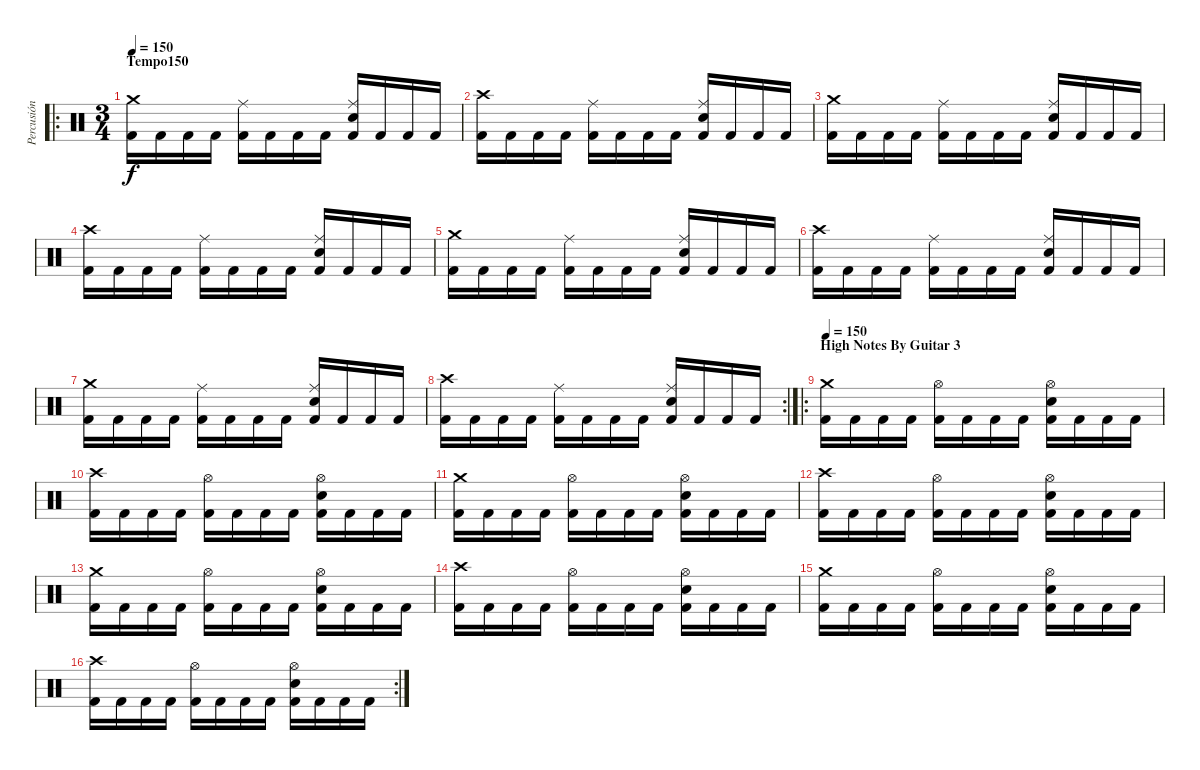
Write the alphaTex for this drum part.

\track ("Percusión" "Percusión") {instrument percussion}
\staff {score}
\articulation defaults
\ro
\ts (3 4)
\section ("" "Tempo150")
\tempo 150
\clef neutral
\ks c
("Crash medium (hit)" "Kick (hit) 2").16{dy f} "Kick (hit) 2".16 "Kick (hit) 2".16 "Kick (hit) 2".16 ("Ride (middle)" "Kick (hit) 2").16 "Kick (hit) 2".16 "Kick (hit) 2".16 "Kick (hit) 2".16 ("Ride (middle)" "Electric Snare (hit)" "Kick (hit) 2").16 "Kick (hit) 2".16 "Kick (hit) 2".16 "Kick (hit) 2".16 |
("Crash high (hit)" "Kick (hit) 2").16 "Kick (hit) 2".16 "Kick (hit) 2".16 "Kick (hit) 2".16 ("Ride (middle)" "Kick (hit) 2").16 "Kick (hit) 2".16 "Kick (hit) 2".16 "Kick (hit) 2".16 ("Ride (middle)" "Electric Snare (hit)" "Kick (hit) 2").16 "Kick (hit) 2".16 "Kick (hit) 2".16 "Kick (hit) 2".16 |
("Crash medium (hit)" "Kick (hit) 2").16 "Kick (hit) 2".16 "Kick (hit) 2".16 "Kick (hit) 2".16 ("Ride (middle)" "Kick (hit) 2").16 "Kick (hit) 2".16 "Kick (hit) 2".16 "Kick (hit) 2".16 ("Ride (middle)" "Electric Snare (hit)" "Kick (hit) 2").16 "Kick (hit) 2".16 "Kick (hit) 2".16 "Kick (hit) 2".16 |
("Crash high (hit)" "Kick (hit) 2").16 "Kick (hit) 2".16 "Kick (hit) 2".16 "Kick (hit) 2".16 ("Ride (middle)" "Kick (hit) 2").16 "Kick (hit) 2".16 "Kick (hit) 2".16 "Kick (hit) 2".16 ("Ride (middle)" "Electric Snare (hit)" "Kick (hit) 2").16 "Kick (hit) 2".16 "Kick (hit) 2".16 "Kick (hit) 2".16 |
("Crash medium (hit)" "Kick (hit) 2").16 "Kick (hit) 2".16 "Kick (hit) 2".16 "Kick (hit) 2".16 ("Ride (middle)" "Kick (hit) 2").16 "Kick (hit) 2".16 "Kick (hit) 2".16 "Kick (hit) 2".16 ("Ride (middle)" "Electric Snare (hit)" "Kick (hit) 2").16 "Kick (hit) 2".16 "Kick (hit) 2".16 "Kick (hit) 2".16 |
("Crash high (hit)" "Kick (hit) 2").16 "Kick (hit) 2".16 "Kick (hit) 2".16 "Kick (hit) 2".16 ("Ride (middle)" "Kick (hit) 2").16 "Kick (hit) 2".16 "Kick (hit) 2".16 "Kick (hit) 2".16 ("Ride (middle)" "Electric Snare (hit)" "Kick (hit) 2").16 "Kick (hit) 2".16 "Kick (hit) 2".16 "Kick (hit) 2".16 |
("Crash medium (hit)" "Kick (hit) 2").16 "Kick (hit) 2".16 "Kick (hit) 2".16 "Kick (hit) 2".16 ("Ride (middle)" "Kick (hit) 2").16 "Kick (hit) 2".16 "Kick (hit) 2".16 "Kick (hit) 2".16 ("Ride (middle)" "Electric Snare (hit)" "Kick (hit) 2").16 "Kick (hit) 2".16 "Kick (hit) 2".16 "Kick (hit) 2".16 |
\rc 2
("Crash high (hit)" "Kick (hit) 2").16 "Kick (hit) 2".16 "Kick (hit) 2".16 "Kick (hit) 2".16 ("Ride (middle)" "Kick (hit) 2").16 "Kick (hit) 2".16 "Kick (hit) 2".16 "Kick (hit) 2".16 ("Ride (middle)" "Electric Snare (hit)" "Kick (hit) 2").16 "Kick (hit) 2".16 "Kick (hit) 2".16 "Kick (hit) 2".16 |
\ro
\section ("" "High Notes By Guitar 3")
\tempo 150
("Crash medium (hit)" "Kick (hit) 2").16 "Kick (hit) 2".16 "Kick (hit) 2".16 "Kick (hit) 2".16 ("Hi-Hat (open)" "Kick (hit) 2").16 "Kick (hit) 2".16 "Kick (hit) 2".16 "Kick (hit) 2".16 ("Hi-Hat (open)" "Electric Snare (hit)" "Kick (hit) 2").16 "Kick (hit) 2".16 "Kick (hit) 2".16 "Kick (hit) 2".16 |
("Crash high (hit)" "Kick (hit) 2").16 "Kick (hit) 2".16 "Kick (hit) 2".16 "Kick (hit) 2".16 ("Hi-Hat (open)" "Kick (hit) 2").16 "Kick (hit) 2".16 "Kick (hit) 2".16 "Kick (hit) 2".16 ("Hi-Hat (open)" "Electric Snare (hit)" "Kick (hit) 2").16 "Kick (hit) 2".16 "Kick (hit) 2".16 "Kick (hit) 2".16 |
("Crash medium (hit)" "Kick (hit) 2").16 "Kick (hit) 2".16 "Kick (hit) 2".16 "Kick (hit) 2".16 ("Hi-Hat (open)" "Kick (hit) 2").16 "Kick (hit) 2".16 "Kick (hit) 2".16 "Kick (hit) 2".16 ("Hi-Hat (open)" "Electric Snare (hit)" "Kick (hit) 2").16 "Kick (hit) 2".16 "Kick (hit) 2".16 "Kick (hit) 2".16 |
("Crash high (hit)" "Kick (hit) 2").16 "Kick (hit) 2".16 "Kick (hit) 2".16 "Kick (hit) 2".16 ("Hi-Hat (open)" "Kick (hit) 2").16 "Kick (hit) 2".16 "Kick (hit) 2".16 "Kick (hit) 2".16 ("Hi-Hat (open)" "Electric Snare (hit)" "Kick (hit) 2").16 "Kick (hit) 2".16 "Kick (hit) 2".16 "Kick (hit) 2".16 |
("Crash medium (hit)" "Kick (hit) 2").16 "Kick (hit) 2".16 "Kick (hit) 2".16 "Kick (hit) 2".16 ("Hi-Hat (open)" "Kick (hit) 2").16 "Kick (hit) 2".16 "Kick (hit) 2".16 "Kick (hit) 2".16 ("Hi-Hat (open)" "Electric Snare (hit)" "Kick (hit) 2").16 "Kick (hit) 2".16 "Kick (hit) 2".16 "Kick (hit) 2".16 |
("Crash high (hit)" "Kick (hit) 2").16 "Kick (hit) 2".16 "Kick (hit) 2".16 "Kick (hit) 2".16 ("Hi-Hat (open)" "Kick (hit) 2").16 "Kick (hit) 2".16 "Kick (hit) 2".16 "Kick (hit) 2".16 ("Hi-Hat (open)" "Electric Snare (hit)" "Kick (hit) 2").16 "Kick (hit) 2".16 "Kick (hit) 2".16 "Kick (hit) 2".16 |
("Crash medium (hit)" "Kick (hit) 2").16 "Kick (hit) 2".16 "Kick (hit) 2".16 "Kick (hit) 2".16 ("Hi-Hat (open)" "Kick (hit) 2").16 "Kick (hit) 2".16 "Kick (hit) 2".16 "Kick (hit) 2".16 ("Hi-Hat (open)" "Electric Snare (hit)" "Kick (hit) 2").16 "Kick (hit) 2".16 "Kick (hit) 2".16 "Kick (hit) 2".16 |
\rc 2
("Crash high (hit)" "Kick (hit) 2").16 "Kick (hit) 2".16 "Kick (hit) 2".16 "Kick (hit) 2".16 ("Hi-Hat (open)" "Kick (hit) 2").16 "Kick (hit) 2".16 "Kick (hit) 2".16 "Kick (hit) 2".16 ("Hi-Hat (open)" "Electric Snare (hit)" "Kick (hit) 2").16 "Kick (hit) 2".16 "Kick (hit) 2".16 "Kick (hit) 2".16
